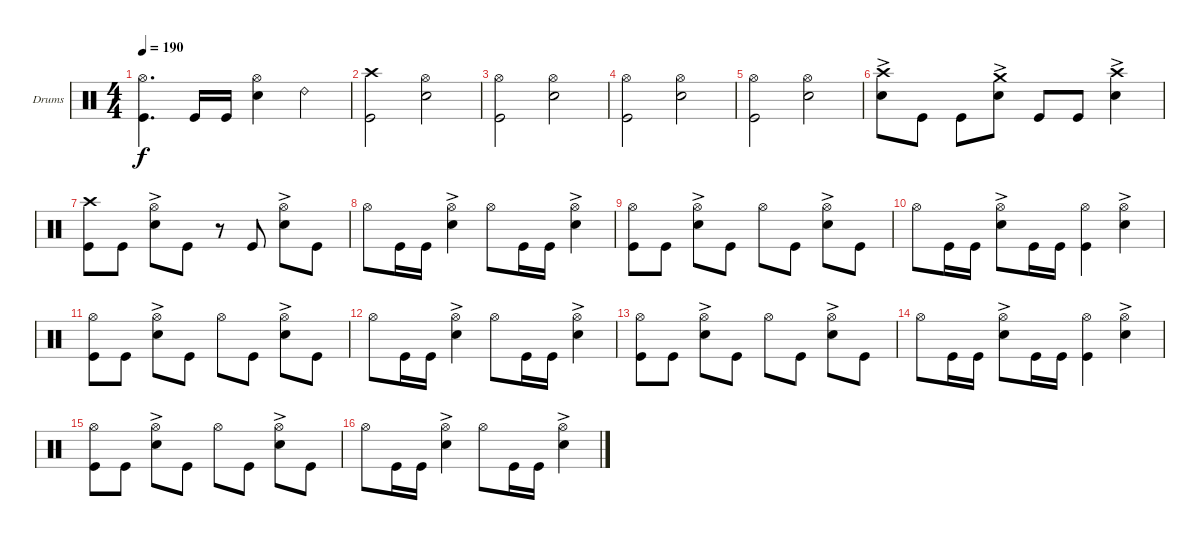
\defaultSystemsLayout 4
\bracketExtendMode groupsimilarinstruments
\firstSystemTrackNameOrientation horizontal
\otherSystemsTrackNameOrientation horizontal
\track ("Drumkit" "Drums") {instrument percussion}
\staff {score}
\articulation defaults
\ts (4 4)
\tempo 190
\clef neutral
\ks c
("Kick (hit)" "Hi-Hat (open)").4{d dy f} "Kick (hit)".16 "Kick (hit)".16 ("Snare (hit) 2" "Hi-Hat (open)").4 "Ride (bell) 2".4 |
("Kick (hit)" "Crash high (hit)").2 ("Snare (hit) 2" "Hi-Hat (open)").2 |
("Kick (hit)" "Hi-Hat (open)").2 ("Snare (hit) 2" "Hi-Hat (open)").2 |
("Kick (hit)" "Hi-Hat (open)").2 ("Snare (hit) 2" "Hi-Hat (open)").2 |
("Kick (hit)" "Hi-Hat (open)").2 ("Snare (hit) 2" "Hi-Hat (open)").2 |
("Snare (hit) 2"{ac} "Crash high (hit)").8 "Kick (hit)".8 "Kick (hit)".8 ("Snare (hit) 2"{ac} "Crash medium (hit)").8 "Kick (hit)".8 "Kick (hit)".8 ("Snare (hit) 2"{ac} "Crash high (hit)").4 |
("Kick (hit)" "Crash high (hit)").8 "Kick (hit)".8 ("Snare (hit) 2"{ac} "Hi-Hat (open)").8 "Kick (hit)".8 r.8 "Kick (hit)".8 ("Snare (hit) 2"{ac} "Hi-Hat (open)").8 "Kick (hit)".8 |
"Hi-Hat (open)".8 "Kick (hit)".16 "Kick (hit)".16 ("Snare (hit) 2"{ac} "Hi-Hat (open)").4 "Hi-Hat (open)".8 "Kick (hit)".16 "Kick (hit)".16 ("Snare (hit) 2"{ac} "Hi-Hat (open)").4 |
("Kick (hit)" "Hi-Hat (open)").8 "Kick (hit)".8 ("Snare (hit) 2"{ac} "Hi-Hat (open)").8 "Kick (hit)".8 "Hi-Hat (open)".8 "Kick (hit)".8 ("Snare (hit) 2"{ac} "Hi-Hat (open)").8 "Kick (hit)".8 |
"Hi-Hat (open)".8 "Kick (hit)".16 "Kick (hit)".16 ("Snare (hit) 2"{ac} "Hi-Hat (open)").8 "Kick (hit)".16 "Kick (hit)".16 ("Kick (hit)" "Hi-Hat (open)").4 ("Snare (hit) 2"{ac} "Hi-Hat (open)").4 |
("Kick (hit)" "Hi-Hat (open)").8 "Kick (hit)".8 ("Snare (hit) 2"{ac} "Hi-Hat (open)").8 "Kick (hit)".8 "Hi-Hat (open)".8 "Kick (hit)".8 ("Snare (hit) 2"{ac} "Hi-Hat (open)").8 "Kick (hit)".8 |
"Hi-Hat (open)".8 "Kick (hit)".16 "Kick (hit)".16 ("Snare (hit) 2"{ac} "Hi-Hat (open)").4 "Hi-Hat (open)".8 "Kick (hit)".16 "Kick (hit)".16 ("Snare (hit) 2"{ac} "Hi-Hat (open)").4 |
("Kick (hit)" "Hi-Hat (open)").8 "Kick (hit)".8 ("Snare (hit) 2"{ac} "Hi-Hat (open)").8 "Kick (hit)".8 "Hi-Hat (open)".8 "Kick (hit)".8 ("Snare (hit) 2"{ac} "Hi-Hat (open)").8 "Kick (hit)".8 |
"Hi-Hat (open)".8 "Kick (hit)".16 "Kick (hit)".16 ("Snare (hit) 2"{ac} "Hi-Hat (open)").8 "Kick (hit)".16 "Kick (hit)".16 ("Kick (hit)" "Hi-Hat (open)").4 ("Snare (hit) 2"{ac} "Hi-Hat (open)").4 |
("Kick (hit)" "Hi-Hat (open)").8 "Kick (hit)".8 ("Snare (hit) 2"{ac} "Hi-Hat (open)").8 "Kick (hit)".8 "Hi-Hat (open)".8 "Kick (hit)".8 ("Snare (hit) 2"{ac} "Hi-Hat (open)").8 "Kick (hit)".8 |
"Hi-Hat (open)".8 "Kick (hit)".16 "Kick (hit)".16 ("Snare (hit) 2"{ac} "Hi-Hat (open)").4 "Hi-Hat (open)".8 "Kick (hit)".16 "Kick (hit)".16 ("Snare (hit) 2"{ac} "Hi-Hat (open)").4
